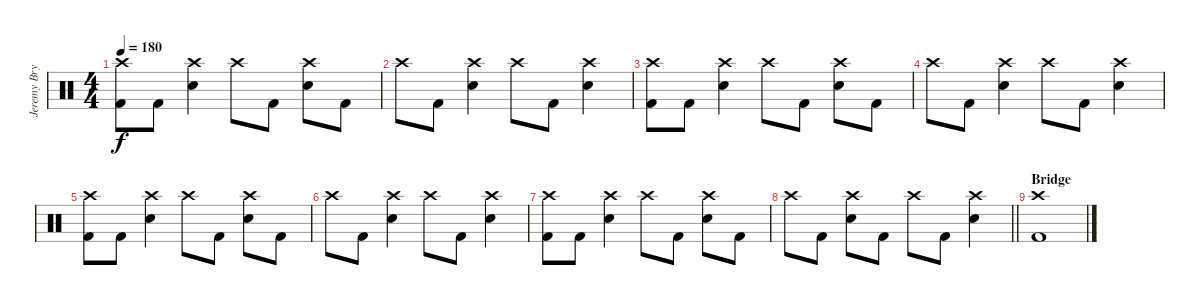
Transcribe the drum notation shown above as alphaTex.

\track ("Jeremy Bryan - Drums" "Jeremy Bry") {instrument percussion}
\staff {score}
\articulation defaults
\ts (4 4)
\tempo 180
\clef neutral
\ks c
("Crash high (hit)" "Kick (hit) 2").8{dy f} "Kick (hit) 2".8 ("Crash high (hit)" "Electric Snare (hit)").4 "Crash high (hit)".8 "Kick (hit) 2".8 ("Crash high (hit)" "Electric Snare (hit)").8 "Kick (hit) 2".8 |
"Crash high (hit)".8 "Kick (hit) 2".8 ("Crash high (hit)" "Electric Snare (hit)").4 "Crash high (hit)".8 "Kick (hit) 2".8 ("Crash high (hit)" "Electric Snare (hit)").4 |
("Crash high (hit)" "Kick (hit) 2").8 "Kick (hit) 2".8 ("Crash high (hit)" "Electric Snare (hit)").4 "Crash high (hit)".8 "Kick (hit) 2".8 ("Crash high (hit)" "Electric Snare (hit)").8 "Kick (hit) 2".8 |
"Crash high (hit)".8 "Kick (hit) 2".8 ("Crash high (hit)" "Electric Snare (hit)").4 "Crash high (hit)".8 "Kick (hit) 2".8 ("Crash high (hit)" "Electric Snare (hit)").4 |
("Crash high (hit)" "Kick (hit) 2").8 "Kick (hit) 2".8 ("Crash high (hit)" "Electric Snare (hit)").4 "Crash high (hit)".8 "Kick (hit) 2".8 ("Crash high (hit)" "Electric Snare (hit)").8 "Kick (hit) 2".8 |
"Crash high (hit)".8 "Kick (hit) 2".8 ("Crash high (hit)" "Electric Snare (hit)").4 "Crash high (hit)".8 "Kick (hit) 2".8 ("Crash high (hit)" "Electric Snare (hit)").4 |
("Crash high (hit)" "Kick (hit) 2").8 "Kick (hit) 2".8 ("Crash high (hit)" "Electric Snare (hit)").4 "Crash high (hit)".8 "Kick (hit) 2".8 ("Crash high (hit)" "Electric Snare (hit)").8 "Kick (hit) 2".8 |
\barLineRight lightlight "Crash high (hit)".8 "Kick (hit) 2".8
("Crash high (hit)" "Electric Snare (hit)").8 "Kick (hit) 2".8 "Crash high (hit)".8 "Kick (hit) 2".8 ("Crash high (hit)" "Electric Snare (hit)").4 |
\section ("" "Bridge")
("Crash high (hit)" "Kick (hit) 2").1
